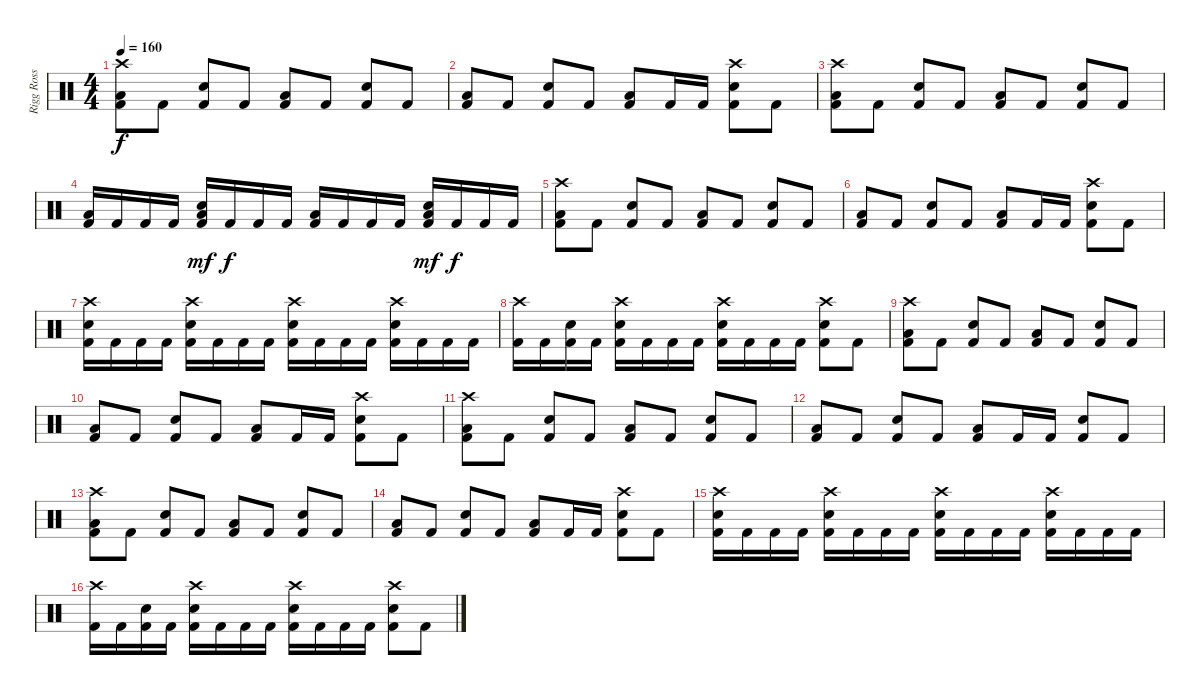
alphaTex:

\track ("Rigg Ross" "Rigg Ross") {instrument percussion}
\staff {score}
\articulation defaults
\ts (4 4)
\tempo 160
\clef neutral
\ks c
("Crash high (hit)" "Low Tom (hit)" "Kick (hit) 2").8{dy f} "Kick (hit) 2".8 ("Electric Snare (hit)" "Kick (hit) 2").8 "Kick (hit) 2".8 ("Low Tom (hit)" "Kick (hit) 2").8 "Kick (hit) 2".8 ("Electric Snare (hit)" "Kick (hit) 2").8 "Kick (hit) 2".8 |
("Low Tom (hit)" "Kick (hit) 2").8 "Kick (hit) 2".8 ("Electric Snare (hit)" "Kick (hit) 2").8 "Kick (hit) 2".8 ("Low Tom (hit)" "Kick (hit) 2").8 "Kick (hit) 2".16 "Kick (hit) 2".16 ("Crash high (hit)" "Electric Snare (hit)" "Kick (hit) 2").8 "Kick (hit) 2".8 |
("Crash high (hit)" "Low Tom (hit)" "Kick (hit) 2").8 "Kick (hit) 2".8 ("Electric Snare (hit)" "Kick (hit) 2").8 "Kick (hit) 2".8 ("Low Tom (hit)" "Kick (hit) 2").8 "Kick (hit) 2".8 ("Electric Snare (hit)" "Kick (hit) 2").8 "Kick (hit) 2".8 |
("Low Tom (hit)" "Kick (hit) 2").16 "Kick (hit) 2".16 "Kick (hit) 2".16 "Kick (hit) 2".16 ("Electric Snare (hit)" "Low Tom (hit)" "Kick (hit) 2").16{dy mf} "Kick (hit) 2".16{dy f} "Kick (hit) 2".16 "Kick (hit) 2".16 ("Low Tom (hit)" "Kick (hit) 2").16 "Kick (hit) 2".16 "Kick (hit) 2".16 "Kick (hit) 2".16 ("Electric Snare (hit)" "Low Tom (hit)" "Kick (hit) 2").16{dy mf} "Kick (hit) 2".16{dy f} "Kick (hit) 2".16 "Kick (hit) 2".16 |
("Crash high (hit)" "Low Tom (hit)" "Kick (hit) 2").8 "Kick (hit) 2".8 ("Electric Snare (hit)" "Kick (hit) 2").8 "Kick (hit) 2".8 ("Low Tom (hit)" "Kick (hit) 2").8 "Kick (hit) 2".8 ("Electric Snare (hit)" "Kick (hit) 2").8 "Kick (hit) 2".8 |
("Low Tom (hit)" "Kick (hit) 2").8 "Kick (hit) 2".8 ("Electric Snare (hit)" "Kick (hit) 2").8 "Kick (hit) 2".8 ("Low Tom (hit)" "Kick (hit) 2").8 "Kick (hit) 2".16 "Kick (hit) 2".16 ("Crash high (hit)" "Electric Snare (hit)" "Kick (hit) 2").8 "Kick (hit) 2".8 |
("Crash high (hit)" "Electric Snare (hit)" "Kick (hit) 2").16 "Kick (hit) 2".16 "Kick (hit) 2".16 "Kick (hit) 2".16 ("Crash high (hit)" "Electric Snare (hit)" "Kick (hit) 2").16 "Kick (hit) 2".16 "Kick (hit) 2".16 "Kick (hit) 2".16 ("Crash high (hit)" "Electric Snare (hit)" "Kick (hit) 2").16 "Kick (hit) 2".16 "Kick (hit) 2".16 "Kick (hit) 2".16 ("Crash high (hit)" "Electric Snare (hit)" "Kick (hit) 2").16 "Kick (hit) 2".16 "Kick (hit) 2".16 "Kick (hit) 2".16 |
("Crash high (hit)" "Kick (hit) 2").16 "Kick (hit) 2".16 ("Electric Snare (hit)" "Kick (hit) 2").16 "Kick (hit) 2".16 ("Crash high (hit)" "Electric Snare (hit)" "Kick (hit) 2").16 "Kick (hit) 2".16 "Kick (hit) 2".16 "Kick (hit) 2".16 ("Crash high (hit)" "Electric Snare (hit)" "Kick (hit) 2").16 "Kick (hit) 2".16 "Kick (hit) 2".16 "Kick (hit) 2".16 ("Crash high (hit)" "Electric Snare (hit)" "Kick (hit) 2").8 "Kick (hit) 2".8 |
("Crash high (hit)" "Low Tom (hit)" "Kick (hit) 2").8 "Kick (hit) 2".8 ("Electric Snare (hit)" "Kick (hit) 2").8 "Kick (hit) 2".8 ("Low Tom (hit)" "Kick (hit) 2").8 "Kick (hit) 2".8 ("Electric Snare (hit)" "Kick (hit) 2").8 "Kick (hit) 2".8 |
("Low Tom (hit)" "Kick (hit) 2").8 "Kick (hit) 2".8 ("Electric Snare (hit)" "Kick (hit) 2").8 "Kick (hit) 2".8 ("Low Tom (hit)" "Kick (hit) 2").8 "Kick (hit) 2".16 "Kick (hit) 2".16 ("Crash high (hit)" "Electric Snare (hit)" "Kick (hit) 2").8 "Kick (hit) 2".8 |
("Crash high (hit)" "Low Tom (hit)" "Kick (hit) 2").8 "Kick (hit) 2".8 ("Electric Snare (hit)" "Kick (hit) 2").8 "Kick (hit) 2".8 ("Low Tom (hit)" "Kick (hit) 2").8 "Kick (hit) 2".8 ("Electric Snare (hit)" "Kick (hit) 2").8 "Kick (hit) 2".8 |
("Low Tom (hit)" "Kick (hit) 2").8 "Kick (hit) 2".8 ("Electric Snare (hit)" "Kick (hit) 2").8 "Kick (hit) 2".8 ("Low Tom (hit)" "Kick (hit) 2").8 "Kick (hit) 2".16 "Kick (hit) 2".16 ("Electric Snare (hit)" "Kick (hit) 2").8 "Kick (hit) 2".8 |
("Crash high (hit)" "Low Tom (hit)" "Kick (hit) 2").8 "Kick (hit) 2".8 ("Electric Snare (hit)" "Kick (hit) 2").8 "Kick (hit) 2".8 ("Low Tom (hit)" "Kick (hit) 2").8 "Kick (hit) 2".8 ("Electric Snare (hit)" "Kick (hit) 2").8 "Kick (hit) 2".8 |
("Low Tom (hit)" "Kick (hit) 2").8 "Kick (hit) 2".8 ("Electric Snare (hit)" "Kick (hit) 2").8 "Kick (hit) 2".8 ("Low Tom (hit)" "Kick (hit) 2").8 "Kick (hit) 2".16 "Kick (hit) 2".16 ("Crash high (hit)" "Electric Snare (hit)" "Kick (hit) 2").8 "Kick (hit) 2".8 |
("Crash high (hit)" "Electric Snare (hit)" "Kick (hit) 2").16 "Kick (hit) 2".16 "Kick (hit) 2".16 "Kick (hit) 2".16 ("Crash high (hit)" "Electric Snare (hit)" "Kick (hit) 2").16 "Kick (hit) 2".16 "Kick (hit) 2".16 "Kick (hit) 2".16 ("Crash high (hit)" "Electric Snare (hit)" "Kick (hit) 2").16 "Kick (hit) 2".16 "Kick (hit) 2".16 "Kick (hit) 2".16 ("Crash high (hit)" "Electric Snare (hit)" "Kick (hit) 2").16 "Kick (hit) 2".16 "Kick (hit) 2".16 "Kick (hit) 2".16 |
("Crash high (hit)" "Kick (hit) 2").16 "Kick (hit) 2".16 ("Electric Snare (hit)" "Kick (hit) 2").16 "Kick (hit) 2".16 ("Crash high (hit)" "Electric Snare (hit)" "Kick (hit) 2").16 "Kick (hit) 2".16 "Kick (hit) 2".16 "Kick (hit) 2".16 ("Crash high (hit)" "Electric Snare (hit)" "Kick (hit) 2").16 "Kick (hit) 2".16 "Kick (hit) 2".16 "Kick (hit) 2".16 ("Crash high (hit)" "Electric Snare (hit)" "Kick (hit) 2").8 "Kick (hit) 2".8
